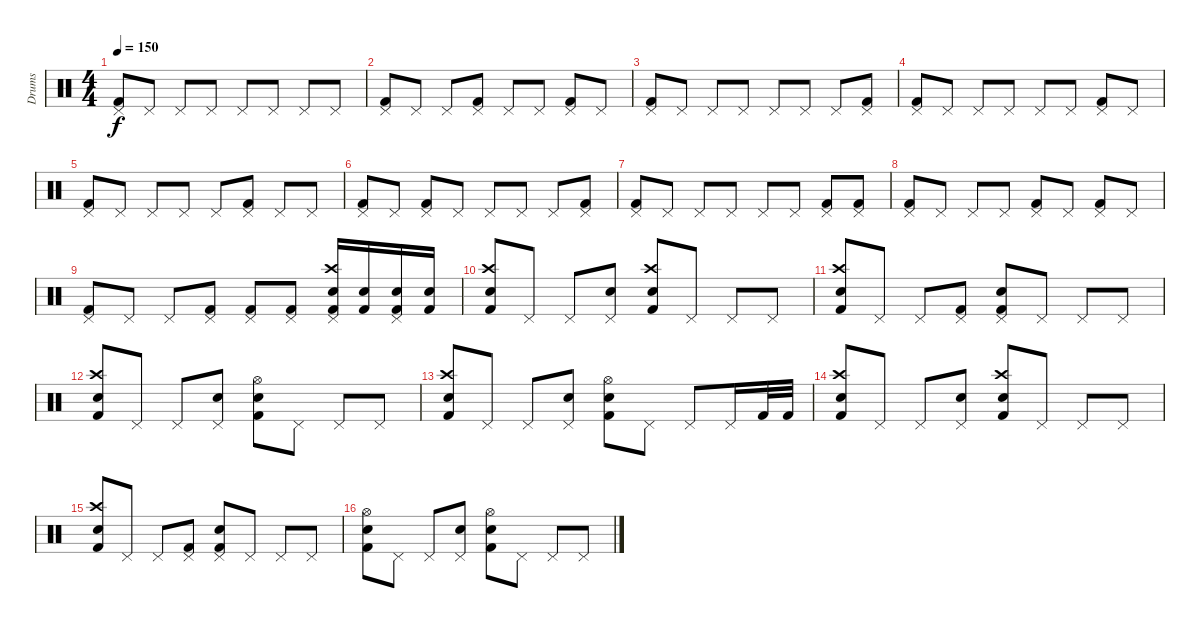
\track ("Drums" "Drums") {instrument percussion}
\staff {score}
\articulation defaults
\ts (4 4)
\tempo 150
\clef neutral
\ks c
("Kick (hit) 2" "Pedal Hi-Hat (hit)").8{dy f} "Pedal Hi-Hat (hit)".8 "Pedal Hi-Hat (hit)".8 "Pedal Hi-Hat (hit)".8 "Pedal Hi-Hat (hit)".8 "Pedal Hi-Hat (hit)".8 "Pedal Hi-Hat (hit)".8 "Pedal Hi-Hat (hit)".8 |
("Kick (hit) 2" "Pedal Hi-Hat (hit)").8 "Pedal Hi-Hat (hit)".8 "Pedal Hi-Hat (hit)".8 ("Kick (hit) 2" "Pedal Hi-Hat (hit)").8 "Pedal Hi-Hat (hit)".8 "Pedal Hi-Hat (hit)".8 ("Kick (hit) 2" "Pedal Hi-Hat (hit)").8 "Pedal Hi-Hat (hit)".8 |
("Kick (hit) 2" "Pedal Hi-Hat (hit)").8 "Pedal Hi-Hat (hit)".8 "Pedal Hi-Hat (hit)".8 "Pedal Hi-Hat (hit)".8 "Pedal Hi-Hat (hit)".8 "Pedal Hi-Hat (hit)".8 "Pedal Hi-Hat (hit)".8 ("Kick (hit) 2" "Pedal Hi-Hat (hit)").8 |
("Kick (hit) 2" "Pedal Hi-Hat (hit)").8 "Pedal Hi-Hat (hit)".8 "Pedal Hi-Hat (hit)".8 "Pedal Hi-Hat (hit)".8 "Pedal Hi-Hat (hit)".8 "Pedal Hi-Hat (hit)".8 ("Kick (hit) 2" "Pedal Hi-Hat (hit)").8 "Pedal Hi-Hat (hit)".8 |
("Kick (hit) 2" "Pedal Hi-Hat (hit)").8 "Pedal Hi-Hat (hit)".8 "Pedal Hi-Hat (hit)".8 "Pedal Hi-Hat (hit)".8 "Pedal Hi-Hat (hit)".8 ("Kick (hit) 2" "Pedal Hi-Hat (hit)").8 "Pedal Hi-Hat (hit)".8 "Pedal Hi-Hat (hit)".8 |
("Kick (hit) 2" "Pedal Hi-Hat (hit)").8 "Pedal Hi-Hat (hit)".8 ("Kick (hit) 2" "Pedal Hi-Hat (hit)").8 "Pedal Hi-Hat (hit)".8 "Pedal Hi-Hat (hit)".8 "Pedal Hi-Hat (hit)".8 "Pedal Hi-Hat (hit)".8 ("Kick (hit) 2" "Pedal Hi-Hat (hit)").8 |
("Kick (hit) 2" "Pedal Hi-Hat (hit)").8 "Pedal Hi-Hat (hit)".8 "Pedal Hi-Hat (hit)".8 "Pedal Hi-Hat (hit)".8 "Pedal Hi-Hat (hit)".8 "Pedal Hi-Hat (hit)".8 ("Kick (hit) 2" "Pedal Hi-Hat (hit)").8 ("Kick (hit) 2" "Pedal Hi-Hat (hit)").8 |
("Kick (hit) 2" "Pedal Hi-Hat (hit)").8 "Pedal Hi-Hat (hit)".8 "Pedal Hi-Hat (hit)".8 "Pedal Hi-Hat (hit)".8 ("Kick (hit) 2" "Pedal Hi-Hat (hit)").8 "Pedal Hi-Hat (hit)".8 ("Kick (hit) 2" "Pedal Hi-Hat (hit)").8 "Pedal Hi-Hat (hit)".8 |
("Kick (hit) 2" "Pedal Hi-Hat (hit)").8 "Pedal Hi-Hat (hit)".8 "Pedal Hi-Hat (hit)".8 ("Kick (hit) 2" "Pedal Hi-Hat (hit)").8 ("Kick (hit) 2" "Pedal Hi-Hat (hit)").8 ("Kick (hit) 2" "Pedal Hi-Hat (hit)").8 ("Crash high (hit)" "Kick (hit) 2" "Snare (hit) 2" "Pedal Hi-Hat (hit)").16 ("Kick (hit) 2" "Snare (hit) 2").16 ("Kick (hit) 2" "Snare (hit) 2" "Pedal Hi-Hat (hit)").16 ("Kick (hit) 2" "Snare (hit) 2").16 |
("Snare (hit) 2" "Crash high (hit)" "Kick (hit) 2").8 "Pedal Hi-Hat (hit)".8 "Pedal Hi-Hat (hit)".8 ("Pedal Hi-Hat (hit)" "Snare (hit) 2").8 ("Snare (hit) 2" "Crash high (hit)" "Kick (hit) 2").8 "Pedal Hi-Hat (hit)".8 "Pedal Hi-Hat (hit)".8 "Pedal Hi-Hat (hit)".8 |
("Snare (hit) 2" "Crash high (hit)" "Kick (hit) 2").8 "Pedal Hi-Hat (hit)".8 "Pedal Hi-Hat (hit)".8 ("Pedal Hi-Hat (hit)" "Kick (hit) 2").8 ("Snare (hit) 2" "Pedal Hi-Hat (hit)" "Kick (hit) 2").8 "Pedal Hi-Hat (hit)".8 "Pedal Hi-Hat (hit)".8 "Pedal Hi-Hat (hit)".8 |
("Snare (hit) 2" "Crash high (hit)" "Kick (hit) 2").8 "Pedal Hi-Hat (hit)".8 "Pedal Hi-Hat (hit)".8 ("Pedal Hi-Hat (hit)" "Snare (hit) 2").8 ("Snare (hit) 2" "Hi-Hat (open)" "Kick (hit) 2").8 "Pedal Hi-Hat (hit)".8 "Pedal Hi-Hat (hit)".8 "Pedal Hi-Hat (hit)".8 |
("Snare (hit) 2" "Crash high (hit)" "Kick (hit) 2").8 "Pedal Hi-Hat (hit)".8 "Pedal Hi-Hat (hit)".8 ("Pedal Hi-Hat (hit)" "Snare (hit) 2").8 ("Snare (hit) 2" "Hi-Hat (open)" "Kick (hit) 2").8 "Pedal Hi-Hat (hit)".8 "Pedal Hi-Hat (hit)".8 "Pedal Hi-Hat (hit)".16 "Kick (hit) 2".32 "Kick (hit) 2".32 |
("Snare (hit) 2" "Crash high (hit)" "Kick (hit) 2").8 "Pedal Hi-Hat (hit)".8 "Pedal Hi-Hat (hit)".8 ("Pedal Hi-Hat (hit)" "Snare (hit) 2").8 ("Snare (hit) 2" "Crash high (hit)" "Kick (hit) 2").8 "Pedal Hi-Hat (hit)".8 "Pedal Hi-Hat (hit)".8 "Pedal Hi-Hat (hit)".8 |
("Snare (hit) 2" "Crash high (hit)" "Kick (hit) 2").8 "Pedal Hi-Hat (hit)".8 "Pedal Hi-Hat (hit)".8 ("Pedal Hi-Hat (hit)" "Kick (hit) 2").8 ("Snare (hit) 2" "Pedal Hi-Hat (hit)" "Kick (hit) 2").8 "Pedal Hi-Hat (hit)".8 "Pedal Hi-Hat (hit)".8 "Pedal Hi-Hat (hit)".8 |
("Snare (hit) 2" "Hi-Hat (open)" "Kick (hit) 2").8 "Pedal Hi-Hat (hit)".8 "Pedal Hi-Hat (hit)".8 ("Pedal Hi-Hat (hit)" "Snare (hit) 2").8 ("Snare (hit) 2" "Hi-Hat (open)" "Kick (hit) 2").8 "Pedal Hi-Hat (hit)".8 "Pedal Hi-Hat (hit)".8 "Pedal Hi-Hat (hit)".8
